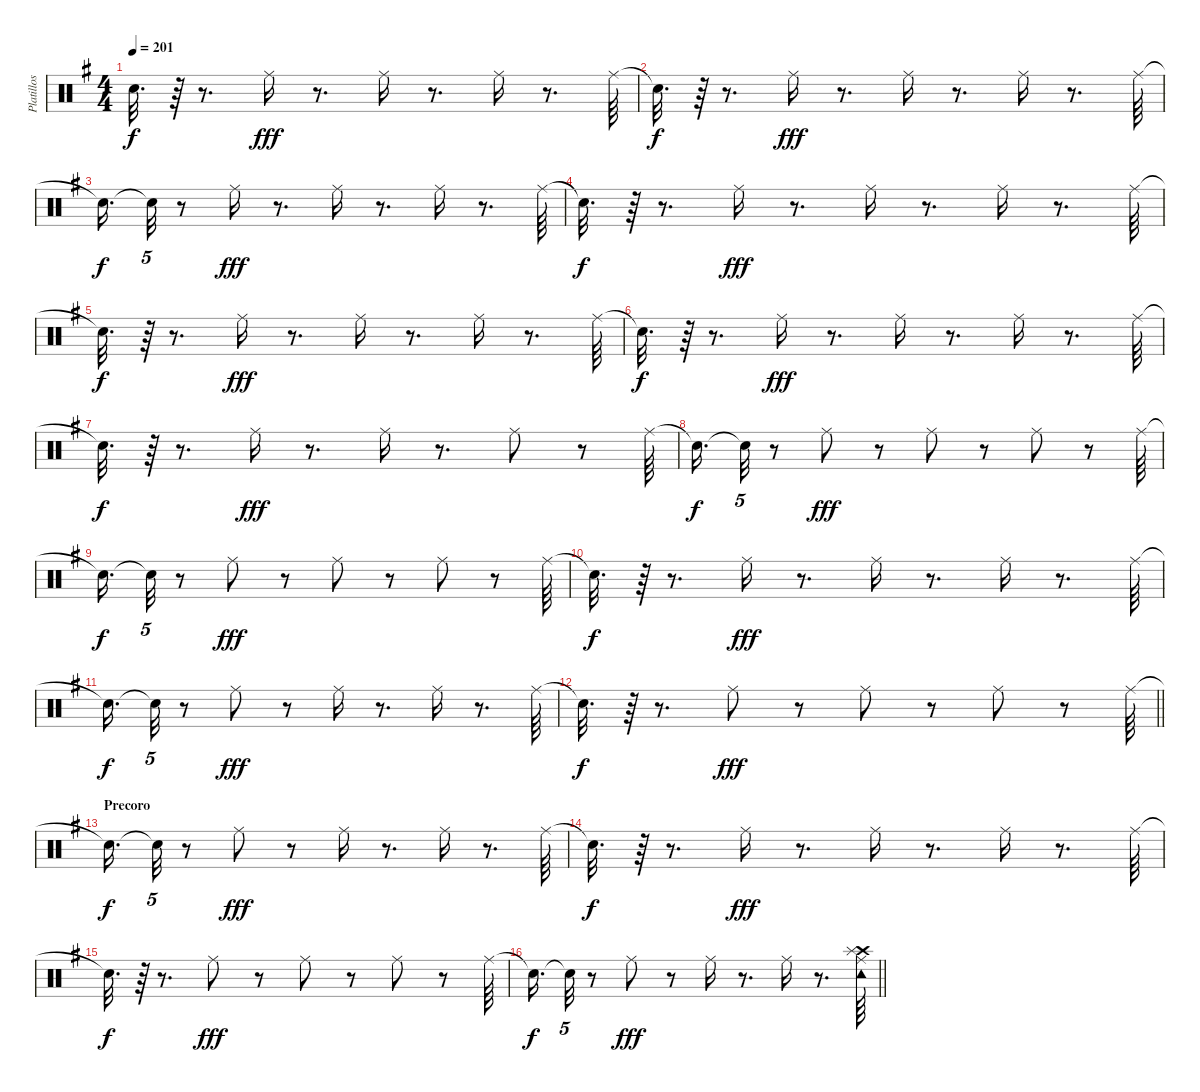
\track ("Platillos y pandero" "Platillos ") {instrument percussion}
\staff {score}
\articulation defaults
\ts (4 4)
\tempo 201
\clef neutral
\ks g "Snare (hit)"{t}.32{d dy f}
r.64 r.8{d} "Ride (middle)".16{dy fff} r.8{d} "Ride (middle)".16 r.8{d} "Ride (middle)".16 r.8{d} "Ride (middle)".64 |
"Snare (hit)"{t}.32{d dy f} r.64 r.8{d} "Ride (middle)".16{dy fff} r.8{d} "Ride (middle)".16 r.8{d} "Ride (middle)".16 r.8{d} "Ride (middle)".64 |
"Snare (hit)"{t}.16{d dy f} "Snare (hit)"{t}.32{tu (5 4)} r.8 "Ride (middle)".16{dy fff} r.8{d} "Ride (middle)".16 r.8{d} "Ride (middle)".16 r.8{d} "Ride (middle)".64 |
"Snare (hit)"{t}.32{d dy f} r.64 r.8{d} "Ride (middle)".16{dy fff} r.8{d} "Ride (middle)".16 r.8{d} "Ride (middle)".16 r.8{d} "Ride (middle)".64 |
"Snare (hit)"{t}.32{d dy f} r.64 r.8{d} "Ride (middle)".16{dy fff} r.8{d} "Ride (middle)".16 r.8{d} "Ride (middle)".16 r.8{d} "Ride (middle)".64 |
"Snare (hit)"{t}.32{d dy f} r.64 r.8{d} "Ride (middle)".16{dy fff} r.8{d} "Ride (middle)".16 r.8{d} "Ride (middle)".16 r.8{d} "Ride (middle)".64 |
"Snare (hit)"{t}.32{d dy f} r.64 r.8{d} "Ride (middle)".16{dy fff} r.8{d} "Ride (middle)".16 r.8{d} "Ride (middle)".8 r.8 "Ride (middle)".64 |
"Snare (hit)"{t}.16{d dy f} "Snare (hit)"{t}.32{tu (5 4)} r.8 "Ride (middle)".8{dy fff} r.8 "Ride (middle)".8 r.8 "Ride (middle)".8 r.8 "Ride (middle)".64 |
"Snare (hit)"{t}.16{d dy f} "Snare (hit)"{t}.32{tu (5 4)} r.8 "Ride (middle)".8{dy fff} r.8 "Ride (middle)".8 r.8 "Ride (middle)".8 r.8 "Ride (middle)".64 |
"Snare (hit)"{t}.32{d dy f} r.64 r.8{d} "Ride (middle)".16{dy fff} r.8{d} "Ride (middle)".16 r.8{d} "Ride (middle)".16 r.8{d} "Ride (middle)".64 |
"Snare (hit)"{t}.16{d dy f} "Snare (hit)"{t}.32{tu (5 4)} r.8 "Ride (middle)".8{dy fff} r.8 "Ride (middle)".16 r.8{d} "Ride (middle)".16 r.8{d} "Ride (middle)".64 |
\barLineRight lightlight "Snare (hit)"{t}.32{d dy f}
r.64 r.8{d} "Ride (middle)".8{dy fff} r.8 "Ride (middle)".8 r.8 "Ride (middle)".8 r.8 "Ride (middle)".64 |
\section ("" "Precoro")
"Snare (hit)"{t}.16{d dy f} "Snare (hit)"{t}.32{tu (5 4)} r.8 "Ride (middle)".8{dy fff} r.8 "Ride (middle)".16 r.8{d} "Ride (middle)".16 r.8{d} "Ride (middle)".64 |
"Snare (hit)"{t}.32{d dy f} r.64 r.8{d} "Ride (middle)".16{dy fff} r.8{d} "Ride (middle)".16 r.8{d} "Ride (middle)".16 r.8{d} "Ride (middle)".64 |
"Snare (hit)"{t}.32{d dy f} r.64 r.8{d} "Ride (middle)".8{dy fff} r.8 "Ride (middle)".8 r.8 "Ride (middle)".8 r.8 "Ride (middle)".64 |
\barLineRight lightlight "Snare (hit)"{t}.16{d dy f} "Snare (hit)"{t}.32{tu (5 4)}
r.8 "Ride (middle)".8{dy fff} r.8 "Ride (middle)".16 r.8{d} "Ride (middle)".16 r.8{d} ("Crash high (hit)" "Splash (hit)" "Ride (middle)" "Tambourine (hit)").64
